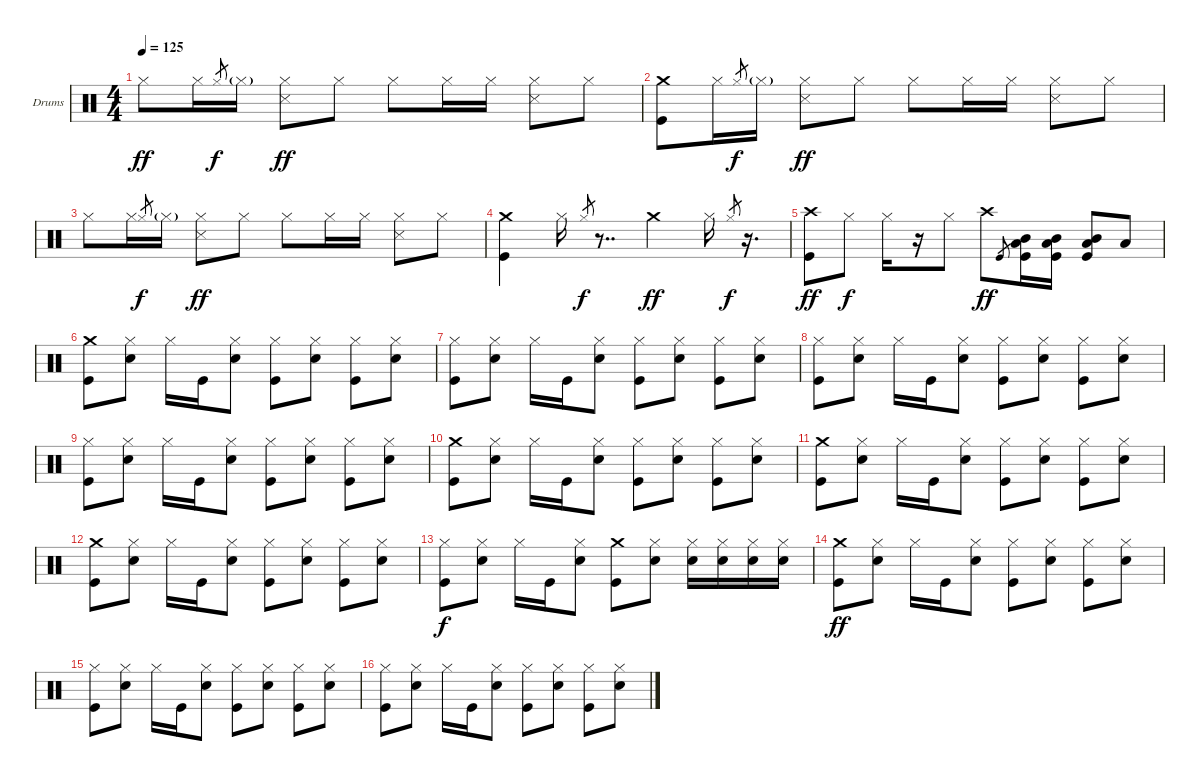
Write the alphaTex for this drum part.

\defaultSystemsLayout 4
\bracketExtendMode groupsimilarinstruments
\firstSystemTrackNameOrientation horizontal
\otherSystemsTrackNameOrientation horizontal
\track ("Drumkit" "Drums") {instrument percussion}
\staff {score}
\articulation defaults
\ts (4 4)
\tempo 125
\clef neutral
\ks c "Hi-Hat (closed)".8{dy ff} "Hi-Hat (closed)".16 "Hi-Hat (closed)".8{gr dy f} "Hi-Hat (closed)"{g}.16
("Hi-Hat (closed)" "Snare (side stick) 3").8{dy ff} "Hi-Hat (closed)".8 "Hi-Hat (closed)".8 "Hi-Hat (closed)".16 "Hi-Hat (closed)".16 ("Hi-Hat (closed)" "Snare (side stick) 3").8 "Hi-Hat (closed)".8 |
("Kick (hit)" "Crash medium (hit)").8 "Hi-Hat (closed)".16 "Hi-Hat (closed)".8{gr dy f} "Hi-Hat (closed)"{g}.16 ("Hi-Hat (closed)" "Snare (side stick) 3").8{dy ff} "Hi-Hat (closed)".8 "Hi-Hat (closed)".8 "Hi-Hat (closed)".16 "Hi-Hat (closed)".16 ("Hi-Hat (closed)" "Snare (side stick) 3").8 "Hi-Hat (closed)".8 |
"Hi-Hat (closed)".8 "Hi-Hat (closed)".16 "Hi-Hat (closed)".8{gr dy f} "Hi-Hat (closed)"{g}.16 ("Hi-Hat (closed)" "Snare (side stick) 3").8{dy ff} "Hi-Hat (closed)".8 "Hi-Hat (closed)".8 "Hi-Hat (closed)".16 "Hi-Hat (closed)".16 ("Hi-Hat (closed)" "Snare (side stick) 3").8 "Hi-Hat (closed)".8 |
("Kick (hit)" "Crash medium (hit)").4 "Hi-Hat (closed)".16 "Hi-Hat (closed)".8{gr dy f} r.8{dd} "Crash medium (hit)".4{dy ff} "Hi-Hat (closed)".16 "Hi-Hat (closed)".8{gr dy f} r.16{d} |
("Kick (hit)" "Crash high (hit)").8{dy ff} "Hi-Hat (closed)".8{dy f} "Hi-Hat (closed)".16 r.16 "Hi-Hat (closed)".8 "Crash high (hit)".8{dy ff} "Kick (hit)".8{gr} ("Kick (hit)" "Low Tom (hit)" "Mid Tom (hit)").16 ("Kick (hit)" "Low Tom (hit)" "Mid Tom (hit)").16 ("Kick (hit)" "Low Tom (hit)" "Mid Tom (hit)").8 "Low Tom (hit)".8 |
("Kick (hit)" "Crash medium (hit)").8 ("Snare (hit) 2" "Hi-Hat (closed)").8 "Hi-Hat (closed)".16 "Kick (hit)".16 ("Snare (hit) 2" "Hi-Hat (closed)").8 ("Kick (hit)" "Hi-Hat (closed)").8 ("Snare (hit) 2" "Hi-Hat (closed)").8 ("Kick (hit)" "Hi-Hat (closed)").8 ("Snare (hit) 2" "Hi-Hat (closed)").8 |
("Kick (hit)" "Hi-Hat (closed)").8 ("Snare (hit) 2" "Hi-Hat (closed)").8 "Hi-Hat (closed)".16 "Kick (hit)".16 ("Snare (hit) 2" "Hi-Hat (closed)").8 ("Kick (hit)" "Hi-Hat (closed)").8 ("Snare (hit) 2" "Hi-Hat (closed)").8 ("Kick (hit)" "Hi-Hat (closed)").8 ("Snare (hit) 2" "Hi-Hat (closed)").8 |
("Kick (hit)" "Hi-Hat (closed)").8 ("Snare (hit) 2" "Hi-Hat (closed)").8 "Hi-Hat (closed)".16 "Kick (hit)".16 ("Snare (hit) 2" "Hi-Hat (closed)").8 ("Kick (hit)" "Hi-Hat (closed)").8 ("Snare (hit) 2" "Hi-Hat (closed)").8 ("Kick (hit)" "Hi-Hat (closed)").8 ("Snare (hit) 2" "Hi-Hat (closed)").8 |
("Kick (hit)" "Hi-Hat (closed)").8 ("Snare (hit) 2" "Hi-Hat (closed)").8 "Hi-Hat (closed)".16 "Kick (hit)".16 ("Snare (hit) 2" "Hi-Hat (closed)").8 ("Kick (hit)" "Hi-Hat (closed)").8 ("Snare (hit) 2" "Hi-Hat (closed)").8 ("Kick (hit)" "Hi-Hat (closed)").8 ("Snare (hit) 2" "Hi-Hat (closed)").8 |
("Kick (hit)" "Crash medium (hit)").8 ("Snare (hit) 2" "Hi-Hat (closed)").8 "Hi-Hat (closed)".16 "Kick (hit)".16 ("Snare (hit) 2" "Hi-Hat (closed)").8 ("Kick (hit)" "Hi-Hat (closed)").8 ("Snare (hit) 2" "Hi-Hat (closed)").8 ("Kick (hit)" "Hi-Hat (closed)").8 ("Snare (hit) 2" "Hi-Hat (closed)").8 |
("Kick (hit)" "Crash medium (hit)").8 ("Snare (hit) 2" "Hi-Hat (closed)").8 "Hi-Hat (closed)".16 "Kick (hit)".16 ("Snare (hit) 2" "Hi-Hat (closed)").8 ("Kick (hit)" "Hi-Hat (closed)").8 ("Snare (hit) 2" "Hi-Hat (closed)").8 ("Kick (hit)" "Hi-Hat (closed)").8 ("Snare (hit) 2" "Hi-Hat (closed)").8 |
("Kick (hit)" "Crash medium (hit)").8 ("Snare (hit) 2" "Hi-Hat (closed)").8 "Hi-Hat (closed)".16 "Kick (hit)".16 ("Snare (hit) 2" "Hi-Hat (closed)").8 ("Kick (hit)" "Hi-Hat (closed)").8 ("Snare (hit) 2" "Hi-Hat (closed)").8 ("Kick (hit)" "Hi-Hat (closed)").8 ("Snare (hit) 2" "Hi-Hat (closed)").8 |
("Kick (hit)" "Hi-Hat (closed)").8{dy f} ("Snare (hit) 2" "Hi-Hat (closed)").8 "Hi-Hat (closed)".16 "Kick (hit)".16 ("Snare (hit) 2" "Hi-Hat (closed)").8 ("Kick (hit)" "Crash medium (hit)").8 ("Snare (hit) 2" "Hi-Hat (closed)").8 ("Snare (hit) 2" "Hi-Hat (closed)").16 ("Snare (hit) 2" "Hi-Hat (closed)").16 ("Snare (hit) 2" "Hi-Hat (closed)").16 ("Snare (hit) 2" "Hi-Hat (closed)").16 |
("Kick (hit)" "Crash medium (hit)").8{dy ff} ("Snare (hit) 2" "Hi-Hat (closed)").8 "Hi-Hat (closed)".16 "Kick (hit)".16 ("Snare (hit) 2" "Hi-Hat (closed)").8 ("Kick (hit)" "Hi-Hat (closed)").8 ("Snare (hit) 2" "Hi-Hat (closed)").8 ("Kick (hit)" "Hi-Hat (closed)").8 ("Snare (hit) 2" "Hi-Hat (closed)").8 |
("Kick (hit)" "Hi-Hat (closed)").8 ("Snare (hit) 2" "Hi-Hat (closed)").8 "Hi-Hat (closed)".16 "Kick (hit)".16 ("Snare (hit) 2" "Hi-Hat (closed)").8 ("Kick (hit)" "Hi-Hat (closed)").8 ("Snare (hit) 2" "Hi-Hat (closed)").8 ("Kick (hit)" "Hi-Hat (closed)").8 ("Snare (hit) 2" "Hi-Hat (closed)").8 |
("Kick (hit)" "Hi-Hat (closed)").8 ("Snare (hit) 2" "Hi-Hat (closed)").8 "Hi-Hat (closed)".16 "Kick (hit)".16 ("Snare (hit) 2" "Hi-Hat (closed)").8 ("Kick (hit)" "Hi-Hat (closed)").8 ("Snare (hit) 2" "Hi-Hat (closed)").8 ("Kick (hit)" "Hi-Hat (closed)").8 ("Snare (hit) 2" "Hi-Hat (closed)").8
